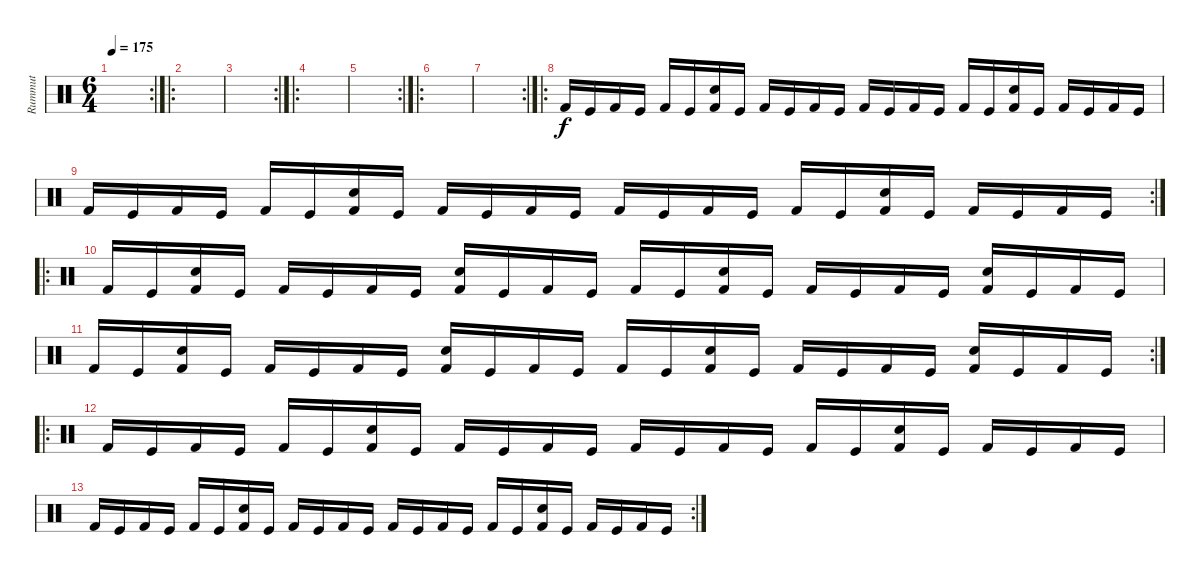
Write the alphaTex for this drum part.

\track ("Rummut" "Rummut") {instrument percussion}
\staff {score}
\articulation defaults
\rc 2
\ts (6 4)
\tempo 175
\clef neutral
\ks c
|
\ro
|
\rc 2
|
\ro
|
\rc 2
|
\ro
|
\rc 2
|
\ro "Kick (hit) 2".16 "Kick (hit)".16 "Kick (hit) 2".16 "Kick (hit)".16 "Kick (hit) 2".16 "Kick (hit)".16
("Snare (hit) 2" "Kick (hit) 2").16 "Kick (hit)".16 "Kick (hit) 2".16 "Kick (hit)".16 "Kick (hit) 2".16 "Kick (hit)".16 "Kick (hit) 2".16 "Kick (hit)".16 "Kick (hit) 2".16 "Kick (hit)".16 "Kick (hit) 2".16 "Kick (hit)".16 ("Snare (hit) 2" "Kick (hit) 2").16 "Kick (hit)".16 "Kick (hit) 2".16 "Kick (hit)".16 "Kick (hit) 2".16 "Kick (hit)".16 |
\rc 2 "Kick (hit) 2".16 "Kick (hit)".16 "Kick (hit) 2".16 "Kick (hit)".16 "Kick (hit) 2".16 "Kick (hit)".16
("Snare (hit) 2" "Kick (hit) 2").16 "Kick (hit)".16 "Kick (hit) 2".16 "Kick (hit)".16 "Kick (hit) 2".16 "Kick (hit)".16 "Kick (hit) 2".16 "Kick (hit)".16 "Kick (hit) 2".16 "Kick (hit)".16 "Kick (hit) 2".16 "Kick (hit)".16 ("Snare (hit) 2" "Kick (hit) 2").16 "Kick (hit)".16 "Kick (hit) 2".16 "Kick (hit)".16 "Kick (hit) 2".16 "Kick (hit)".16 |
\ro "Kick (hit) 2".16 "Kick (hit)".16
("Snare (hit) 2" "Kick (hit) 2").16 "Kick (hit)".16 "Kick (hit) 2".16 "Kick (hit)".16 "Kick (hit) 2".16 "Kick (hit)".16 ("Snare (hit) 2" "Kick (hit) 2").16 "Kick (hit)".16 "Kick (hit) 2".16 "Kick (hit)".16 "Kick (hit) 2".16 "Kick (hit)".16 ("Snare (hit) 2" "Kick (hit) 2").16 "Kick (hit)".16 "Kick (hit) 2".16 "Kick (hit)".16 "Kick (hit) 2".16 "Kick (hit)".16 ("Snare (hit) 2" "Kick (hit) 2").16 "Kick (hit)".16 "Kick (hit) 2".16 "Kick (hit)".16 |
\rc 2 "Kick (hit) 2".16 "Kick (hit)".16
("Snare (hit) 2" "Kick (hit) 2").16 "Kick (hit)".16 "Kick (hit) 2".16 "Kick (hit)".16 "Kick (hit) 2".16 "Kick (hit)".16 ("Snare (hit) 2" "Kick (hit) 2").16 "Kick (hit)".16 "Kick (hit) 2".16 "Kick (hit)".16 "Kick (hit) 2".16 "Kick (hit)".16 ("Snare (hit) 2" "Kick (hit) 2").16 "Kick (hit)".16 "Kick (hit) 2".16 "Kick (hit)".16 "Kick (hit) 2".16 "Kick (hit)".16 ("Snare (hit) 2" "Kick (hit) 2").16 "Kick (hit)".16 "Kick (hit) 2".16 "Kick (hit)".16 |
\ro "Kick (hit) 2".16 "Kick (hit)".16 "Kick (hit) 2".16 "Kick (hit)".16 "Kick (hit) 2".16 "Kick (hit)".16
("Snare (hit) 2" "Kick (hit) 2").16 "Kick (hit)".16 "Kick (hit) 2".16 "Kick (hit)".16 "Kick (hit) 2".16 "Kick (hit)".16 "Kick (hit) 2".16 "Kick (hit)".16 "Kick (hit) 2".16 "Kick (hit)".16 "Kick (hit) 2".16 "Kick (hit)".16 ("Snare (hit) 2" "Kick (hit) 2").16 "Kick (hit)".16 "Kick (hit) 2".16 "Kick (hit)".16 "Kick (hit) 2".16 "Kick (hit)".16 |
\rc 2 "Kick (hit) 2".16 "Kick (hit)".16 "Kick (hit) 2".16 "Kick (hit)".16 "Kick (hit) 2".16 "Kick (hit)".16
("Snare (hit) 2" "Kick (hit) 2").16 "Kick (hit)".16 "Kick (hit) 2".16 "Kick (hit)".16 "Kick (hit) 2".16 "Kick (hit)".16 "Kick (hit) 2".16 "Kick (hit)".16 "Kick (hit) 2".16 "Kick (hit)".16 "Kick (hit) 2".16 "Kick (hit)".16 ("Snare (hit) 2" "Kick (hit) 2").16 "Kick (hit)".16 "Kick (hit) 2".16 "Kick (hit)".16 "Kick (hit) 2".16 "Kick (hit)".16
